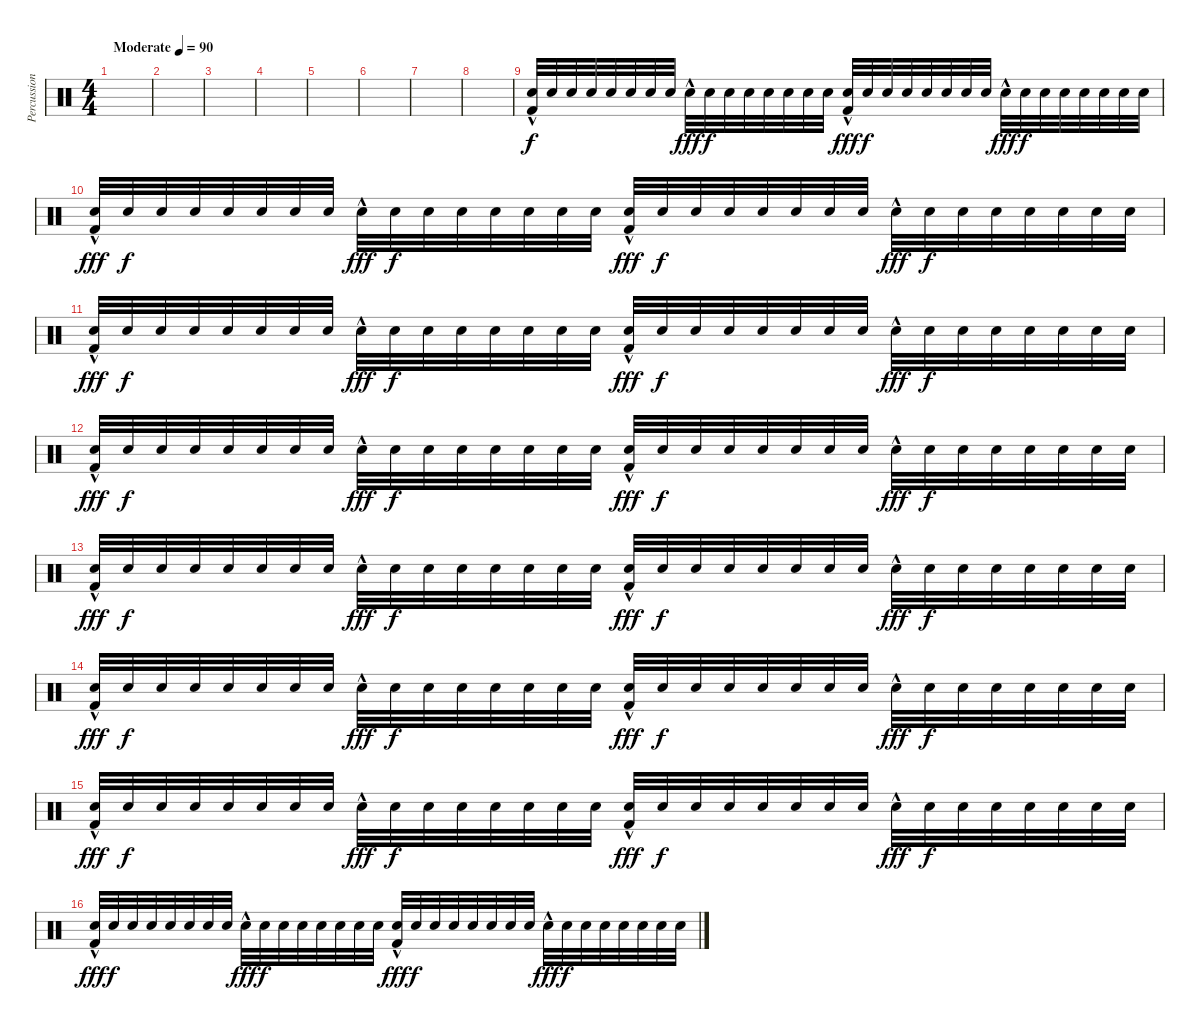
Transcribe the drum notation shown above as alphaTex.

\track ("Percussion" "Percussion") {instrument percussion}
\staff {score}
\articulation defaults
\ts (4 4)
\tempo (90 "Moderate")
\clef neutral
\ks c
|
|
|
|
|
|
|
|
("Snare (hit) 2" "Kick (hit) 2"{hac}).32 "Snare (hit) 2".32{dy f} "Snare (hit) 2".32 "Snare (hit) 2".32 "Snare (hit) 2".32 "Snare (hit) 2".32 "Snare (hit) 2".32 "Snare (hit) 2".32 "Snare (hit) 2"{hac}.32{dy fff} "Snare (hit) 2".32{dy f} "Snare (hit) 2".32 "Snare (hit) 2".32 "Snare (hit) 2".32 "Snare (hit) 2".32 "Snare (hit) 2".32 "Snare (hit) 2".32 ("Snare (hit) 2" "Kick (hit) 2"{hac}).32{dy fff} "Snare (hit) 2".32{dy f} "Snare (hit) 2".32 "Snare (hit) 2".32 "Snare (hit) 2".32 "Snare (hit) 2".32 "Snare (hit) 2".32 "Snare (hit) 2".32 "Snare (hit) 2"{hac}.32{dy fff} "Snare (hit) 2".32{dy f} "Snare (hit) 2".32 "Snare (hit) 2".32 "Snare (hit) 2".32 "Snare (hit) 2".32 "Snare (hit) 2".32 "Snare (hit) 2".32 |
("Snare (hit) 2" "Kick (hit) 2"{hac}).32{dy fff} "Snare (hit) 2".32{dy f} "Snare (hit) 2".32 "Snare (hit) 2".32 "Snare (hit) 2".32 "Snare (hit) 2".32 "Snare (hit) 2".32 "Snare (hit) 2".32 "Snare (hit) 2"{hac}.32{dy fff} "Snare (hit) 2".32{dy f} "Snare (hit) 2".32 "Snare (hit) 2".32 "Snare (hit) 2".32 "Snare (hit) 2".32 "Snare (hit) 2".32 "Snare (hit) 2".32 ("Snare (hit) 2" "Kick (hit) 2"{hac}).32{dy fff} "Snare (hit) 2".32{dy f} "Snare (hit) 2".32 "Snare (hit) 2".32 "Snare (hit) 2".32 "Snare (hit) 2".32 "Snare (hit) 2".32 "Snare (hit) 2".32 "Snare (hit) 2"{hac}.32{dy fff} "Snare (hit) 2".32{dy f} "Snare (hit) 2".32 "Snare (hit) 2".32 "Snare (hit) 2".32 "Snare (hit) 2".32 "Snare (hit) 2".32 "Snare (hit) 2".32 |
("Snare (hit) 2" "Kick (hit) 2"{hac}).32{dy fff} "Snare (hit) 2".32{dy f} "Snare (hit) 2".32 "Snare (hit) 2".32 "Snare (hit) 2".32 "Snare (hit) 2".32 "Snare (hit) 2".32 "Snare (hit) 2".32 "Snare (hit) 2"{hac}.32{dy fff} "Snare (hit) 2".32{dy f} "Snare (hit) 2".32 "Snare (hit) 2".32 "Snare (hit) 2".32 "Snare (hit) 2".32 "Snare (hit) 2".32 "Snare (hit) 2".32 ("Snare (hit) 2" "Kick (hit) 2"{hac}).32{dy fff} "Snare (hit) 2".32{dy f} "Snare (hit) 2".32 "Snare (hit) 2".32 "Snare (hit) 2".32 "Snare (hit) 2".32 "Snare (hit) 2".32 "Snare (hit) 2".32 "Snare (hit) 2"{hac}.32{dy fff} "Snare (hit) 2".32{dy f} "Snare (hit) 2".32 "Snare (hit) 2".32 "Snare (hit) 2".32 "Snare (hit) 2".32 "Snare (hit) 2".32 "Snare (hit) 2".32 |
("Snare (hit) 2" "Kick (hit) 2"{hac}).32{dy fff} "Snare (hit) 2".32{dy f} "Snare (hit) 2".32 "Snare (hit) 2".32 "Snare (hit) 2".32 "Snare (hit) 2".32 "Snare (hit) 2".32 "Snare (hit) 2".32 "Snare (hit) 2"{hac}.32{dy fff} "Snare (hit) 2".32{dy f} "Snare (hit) 2".32 "Snare (hit) 2".32 "Snare (hit) 2".32 "Snare (hit) 2".32 "Snare (hit) 2".32 "Snare (hit) 2".32 ("Snare (hit) 2" "Kick (hit) 2"{hac}).32{dy fff} "Snare (hit) 2".32{dy f} "Snare (hit) 2".32 "Snare (hit) 2".32 "Snare (hit) 2".32 "Snare (hit) 2".32 "Snare (hit) 2".32 "Snare (hit) 2".32 "Snare (hit) 2"{hac}.32{dy fff} "Snare (hit) 2".32{dy f} "Snare (hit) 2".32 "Snare (hit) 2".32 "Snare (hit) 2".32 "Snare (hit) 2".32 "Snare (hit) 2".32 "Snare (hit) 2".32 |
("Snare (hit) 2" "Kick (hit) 2"{hac}).32{dy fff} "Snare (hit) 2".32{dy f} "Snare (hit) 2".32 "Snare (hit) 2".32 "Snare (hit) 2".32 "Snare (hit) 2".32 "Snare (hit) 2".32 "Snare (hit) 2".32 "Snare (hit) 2"{hac}.32{dy fff} "Snare (hit) 2".32{dy f} "Snare (hit) 2".32 "Snare (hit) 2".32 "Snare (hit) 2".32 "Snare (hit) 2".32 "Snare (hit) 2".32 "Snare (hit) 2".32 ("Snare (hit) 2" "Kick (hit) 2"{hac}).32{dy fff} "Snare (hit) 2".32{dy f} "Snare (hit) 2".32 "Snare (hit) 2".32 "Snare (hit) 2".32 "Snare (hit) 2".32 "Snare (hit) 2".32 "Snare (hit) 2".32 "Snare (hit) 2"{hac}.32{dy fff} "Snare (hit) 2".32{dy f} "Snare (hit) 2".32 "Snare (hit) 2".32 "Snare (hit) 2".32 "Snare (hit) 2".32 "Snare (hit) 2".32 "Snare (hit) 2".32 |
("Snare (hit) 2" "Kick (hit) 2"{hac}).32{dy fff} "Snare (hit) 2".32{dy f} "Snare (hit) 2".32 "Snare (hit) 2".32 "Snare (hit) 2".32 "Snare (hit) 2".32 "Snare (hit) 2".32 "Snare (hit) 2".32 "Snare (hit) 2"{hac}.32{dy fff} "Snare (hit) 2".32{dy f} "Snare (hit) 2".32 "Snare (hit) 2".32 "Snare (hit) 2".32 "Snare (hit) 2".32 "Snare (hit) 2".32 "Snare (hit) 2".32 ("Snare (hit) 2" "Kick (hit) 2"{hac}).32{dy fff} "Snare (hit) 2".32{dy f} "Snare (hit) 2".32 "Snare (hit) 2".32 "Snare (hit) 2".32 "Snare (hit) 2".32 "Snare (hit) 2".32 "Snare (hit) 2".32 "Snare (hit) 2"{hac}.32{dy fff} "Snare (hit) 2".32{dy f} "Snare (hit) 2".32 "Snare (hit) 2".32 "Snare (hit) 2".32 "Snare (hit) 2".32 "Snare (hit) 2".32 "Snare (hit) 2".32 |
("Snare (hit) 2" "Kick (hit) 2"{hac}).32{dy fff} "Snare (hit) 2".32{dy f} "Snare (hit) 2".32 "Snare (hit) 2".32 "Snare (hit) 2".32 "Snare (hit) 2".32 "Snare (hit) 2".32 "Snare (hit) 2".32 "Snare (hit) 2"{hac}.32{dy fff} "Snare (hit) 2".32{dy f} "Snare (hit) 2".32 "Snare (hit) 2".32 "Snare (hit) 2".32 "Snare (hit) 2".32 "Snare (hit) 2".32 "Snare (hit) 2".32 ("Snare (hit) 2" "Kick (hit) 2"{hac}).32{dy fff} "Snare (hit) 2".32{dy f} "Snare (hit) 2".32 "Snare (hit) 2".32 "Snare (hit) 2".32 "Snare (hit) 2".32 "Snare (hit) 2".32 "Snare (hit) 2".32 "Snare (hit) 2"{hac}.32{dy fff} "Snare (hit) 2".32{dy f} "Snare (hit) 2".32 "Snare (hit) 2".32 "Snare (hit) 2".32 "Snare (hit) 2".32 "Snare (hit) 2".32 "Snare (hit) 2".32 |
("Snare (hit) 2" "Kick (hit) 2"{hac}).32{dy fff} "Snare (hit) 2".32{dy f} "Snare (hit) 2".32 "Snare (hit) 2".32 "Snare (hit) 2".32 "Snare (hit) 2".32 "Snare (hit) 2".32 "Snare (hit) 2".32 "Snare (hit) 2"{hac}.32{dy fff} "Snare (hit) 2".32{dy f} "Snare (hit) 2".32 "Snare (hit) 2".32 "Snare (hit) 2".32 "Snare (hit) 2".32 "Snare (hit) 2".32 "Snare (hit) 2".32 ("Snare (hit) 2" "Kick (hit) 2"{hac}).32{dy fff} "Snare (hit) 2".32{dy f} "Snare (hit) 2".32 "Snare (hit) 2".32 "Snare (hit) 2".32 "Snare (hit) 2".32 "Snare (hit) 2".32 "Snare (hit) 2".32 "Snare (hit) 2"{hac}.32{dy fff} "Snare (hit) 2".32{dy f} "Snare (hit) 2".32 "Snare (hit) 2".32 "Snare (hit) 2".32 "Snare (hit) 2".32 "Snare (hit) 2".32 "Snare (hit) 2".32
